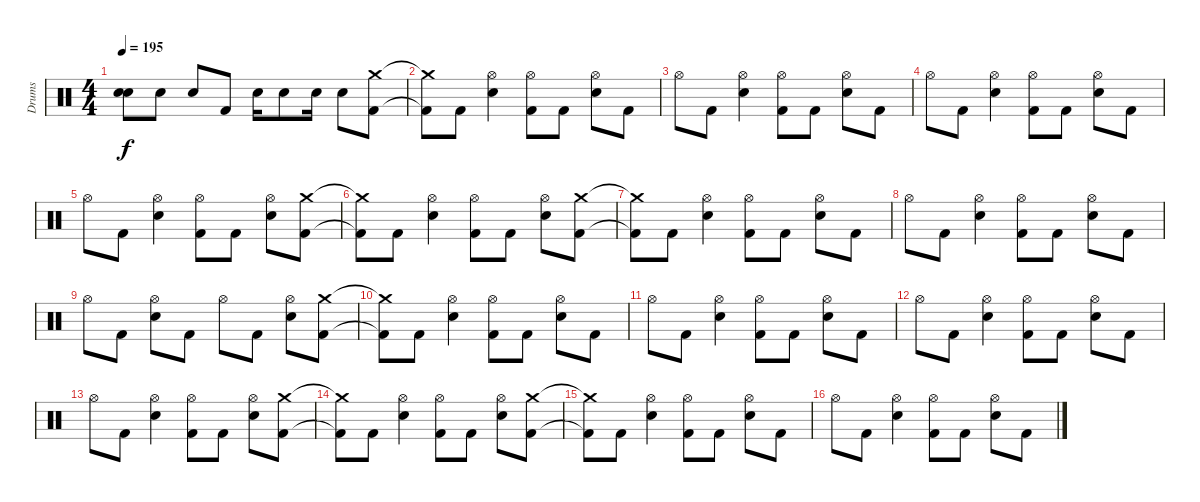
\track ("Drums" "Drums") {instrument percussion}
\staff {score}
\articulation defaults
\ts (4 4)
\tempo 195
\clef neutral
\ks c
("Snare (hit)"{t} "Snare (hit)"{t}).8{dy f} "Electric Snare (hit)".8 "Electric Snare (hit)".8 "Kick (hit) 2".8 "Electric Snare (hit)".16 "Electric Snare (hit)".8 "Electric Snare (hit)".16 "Electric Snare (hit)".8 ("Crash medium (hit)" "Kick (hit) 2").8 |
\section ("" "")
("Crash medium (hit)"{t} "Kick (hit) 2"{t}).8 "Kick (hit) 2".8 ("Hi-Hat (open)" "Electric Snare (hit)").4 ("Hi-Hat (open)" "Kick (hit) 2").8 "Kick (hit) 2".8 ("Hi-Hat (open)" "Electric Snare (hit)").8 "Kick (hit) 2".8 |
"Hi-Hat (open)".8 "Kick (hit) 2".8 ("Hi-Hat (open)" "Electric Snare (hit)").4 ("Hi-Hat (open)" "Kick (hit) 2").8 "Kick (hit) 2".8 ("Hi-Hat (open)" "Electric Snare (hit)").8 "Kick (hit) 2".8 |
"Hi-Hat (open)".8 "Kick (hit) 2".8 ("Hi-Hat (open)" "Electric Snare (hit)").4 ("Hi-Hat (open)" "Kick (hit) 2").8 "Kick (hit) 2".8 ("Hi-Hat (open)" "Electric Snare (hit)").8 "Kick (hit) 2".8 |
"Hi-Hat (open)".8 "Kick (hit) 2".8 ("Hi-Hat (open)" "Electric Snare (hit)").4 ("Hi-Hat (open)" "Kick (hit) 2").8 "Kick (hit) 2".8 ("Hi-Hat (open)" "Electric Snare (hit)").8 ("Crash medium (hit)" "Kick (hit) 2").8 |
("Crash medium (hit)"{t} "Kick (hit) 2"{t}).8 "Kick (hit) 2".8 ("Hi-Hat (open)" "Electric Snare (hit)").4 ("Hi-Hat (open)" "Kick (hit) 2").8 "Kick (hit) 2".8 ("Hi-Hat (open)" "Electric Snare (hit)").8 ("Crash medium (hit)" "Kick (hit) 2").8 |
("Crash medium (hit)"{t} "Kick (hit) 2"{t}).8 "Kick (hit) 2".8 ("Hi-Hat (open)" "Electric Snare (hit)").4 ("Hi-Hat (open)" "Kick (hit) 2").8 "Kick (hit) 2".8 ("Hi-Hat (open)" "Electric Snare (hit)").8 "Kick (hit) 2".8 |
"Hi-Hat (open)".8 "Kick (hit) 2".8 ("Hi-Hat (open)" "Electric Snare (hit)").4 ("Hi-Hat (open)" "Kick (hit) 2").8 "Kick (hit) 2".8 ("Hi-Hat (open)" "Electric Snare (hit)").8 "Kick (hit) 2".8 |
"Hi-Hat (open)".8 "Kick (hit) 2".8 ("Hi-Hat (open)" "Electric Snare (hit)").8 "Kick (hit) 2".8 "Hi-Hat (open)".8 "Kick (hit) 2".8 ("Hi-Hat (open)" "Electric Snare (hit)").8 ("Crash medium (hit)" "Kick (hit) 2").8 |
\section ("" "")
("Crash medium (hit)"{t} "Kick (hit) 2"{t}).8 "Kick (hit) 2".8 ("Hi-Hat (open)" "Electric Snare (hit)").4 ("Hi-Hat (open)" "Kick (hit) 2").8 "Kick (hit) 2".8 ("Hi-Hat (open)" "Electric Snare (hit)").8 "Kick (hit) 2".8 |
"Hi-Hat (open)".8 "Kick (hit) 2".8 ("Hi-Hat (open)" "Electric Snare (hit)").4 ("Hi-Hat (open)" "Kick (hit) 2").8 "Kick (hit) 2".8 ("Hi-Hat (open)" "Electric Snare (hit)").8 "Kick (hit) 2".8 |
"Hi-Hat (open)".8 "Kick (hit) 2".8 ("Hi-Hat (open)" "Electric Snare (hit)").4 ("Hi-Hat (open)" "Kick (hit) 2").8 "Kick (hit) 2".8 ("Hi-Hat (open)" "Electric Snare (hit)").8 "Kick (hit) 2".8 |
"Hi-Hat (open)".8 "Kick (hit) 2".8 ("Hi-Hat (open)" "Electric Snare (hit)").4 ("Hi-Hat (open)" "Kick (hit) 2").8 "Kick (hit) 2".8 ("Hi-Hat (open)" "Electric Snare (hit)").8 ("Crash medium (hit)" "Kick (hit) 2").8 |
("Crash medium (hit)"{t} "Kick (hit) 2"{t}).8 "Kick (hit) 2".8 ("Hi-Hat (open)" "Electric Snare (hit)").4 ("Hi-Hat (open)" "Kick (hit) 2").8 "Kick (hit) 2".8 ("Hi-Hat (open)" "Electric Snare (hit)").8 ("Crash medium (hit)" "Kick (hit) 2").8 |
("Crash medium (hit)"{t} "Kick (hit) 2"{t}).8 "Kick (hit) 2".8 ("Hi-Hat (open)" "Electric Snare (hit)").4 ("Hi-Hat (open)" "Kick (hit) 2").8 "Kick (hit) 2".8 ("Hi-Hat (open)" "Electric Snare (hit)").8 "Kick (hit) 2".8 |
"Hi-Hat (open)".8 "Kick (hit) 2".8 ("Hi-Hat (open)" "Electric Snare (hit)").4 ("Hi-Hat (open)" "Kick (hit) 2").8 "Kick (hit) 2".8 ("Hi-Hat (open)" "Electric Snare (hit)").8 "Kick (hit) 2".8
